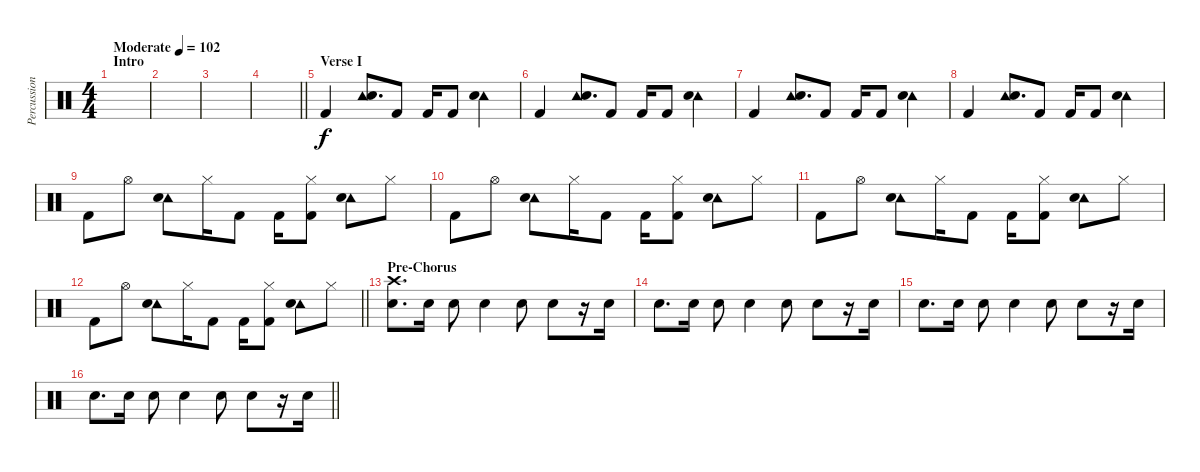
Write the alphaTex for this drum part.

\track ("Percussion" "Percussion") {instrument percussion}
\staff {score}
\articulation defaults
\ts (4 4)
\section ("" "Intro")
\tempo (102 "Moderate")
\clef neutral
\ks c
|
|
|
\barLineRight lightlight
|
\section ("" "Verse I")
"Kick (hit) 2".4 ("Tambourine (hit)" "Electric Snare (hit)").8{d} "Kick (hit) 2".8 "Kick (hit) 2".16 "Kick (hit) 2".8 ("Tambourine (hit)" "Electric Snare (hit)").4 |
"Kick (hit) 2".4 ("Tambourine (hit)" "Electric Snare (hit)").8{d} "Kick (hit) 2".8 "Kick (hit) 2".16 "Kick (hit) 2".8 ("Tambourine (hit)" "Electric Snare (hit)").4 |
"Kick (hit) 2".4 ("Tambourine (hit)" "Electric Snare (hit)").8{d} "Kick (hit) 2".8 "Kick (hit) 2".16 "Kick (hit) 2".8 ("Tambourine (hit)" "Electric Snare (hit)").4 |
"Kick (hit) 2".4 ("Tambourine (hit)" "Electric Snare (hit)").8{d} "Kick (hit) 2".8 "Kick (hit) 2".16 "Kick (hit) 2".8 ("Tambourine (hit)" "Electric Snare (hit)").4 |
"Kick (hit) 2".8 "Hi-Hat (open)".8 ("Tambourine (hit)" "Electric Snare (hit)").8 "Hi-Hat (closed)".16 "Kick (hit) 2".8 "Kick (hit) 2".16 ("Hi-Hat (closed)" "Kick (hit) 2").8 ("Tambourine (hit)" "Electric Snare (hit)").8 "Hi-Hat (closed)".8 |
"Kick (hit) 2".8 "Hi-Hat (open)".8 ("Tambourine (hit)" "Electric Snare (hit)").8 "Hi-Hat (closed)".16 "Kick (hit) 2".8 "Kick (hit) 2".16 ("Hi-Hat (closed)" "Kick (hit) 2").8 ("Tambourine (hit)" "Electric Snare (hit)").8 "Hi-Hat (closed)".8 |
"Kick (hit) 2".8 "Hi-Hat (open)".8 ("Tambourine (hit)" "Electric Snare (hit)").8 "Hi-Hat (closed)".16 "Kick (hit) 2".8 "Kick (hit) 2".16 ("Hi-Hat (closed)" "Kick (hit) 2").8 ("Tambourine (hit)" "Electric Snare (hit)").8 "Hi-Hat (closed)".8 |
\barLineRight lightlight "Kick (hit) 2".8 "Hi-Hat (open)".8
("Tambourine (hit)" "Electric Snare (hit)").8 "Hi-Hat (closed)".16 "Kick (hit) 2".8 "Kick (hit) 2".16 ("Hi-Hat (closed)" "Kick (hit) 2").8 ("Tambourine (hit)" "Electric Snare (hit)").8 "Hi-Hat (closed)".8 |
\section ("" "Pre-Chorus")
("Crash high (hit)" "Electric Snare (hit)").8{d} "Electric Snare (hit)".16 "Electric Snare (hit)".8 "Electric Snare (hit)".4 "Electric Snare (hit)".8 "Electric Snare (hit)".8 r.16 "Electric Snare (hit)".16 |
"Electric Snare (hit)".8{d} "Electric Snare (hit)".16 "Electric Snare (hit)".8 "Electric Snare (hit)".4 "Electric Snare (hit)".8 "Electric Snare (hit)".8 r.16 "Electric Snare (hit)".16 |
"Electric Snare (hit)".8{d} "Electric Snare (hit)".16 "Electric Snare (hit)".8 "Electric Snare (hit)".4 "Electric Snare (hit)".8 "Electric Snare (hit)".8 r.16 "Electric Snare (hit)".16 |
\barLineRight lightlight "Electric Snare (hit)".8{d} "Electric Snare (hit)".16 "Electric Snare (hit)".8 "Electric Snare (hit)".4 "Electric Snare (hit)".8 "Electric Snare (hit)".8
r.16 "Electric Snare (hit)".16
